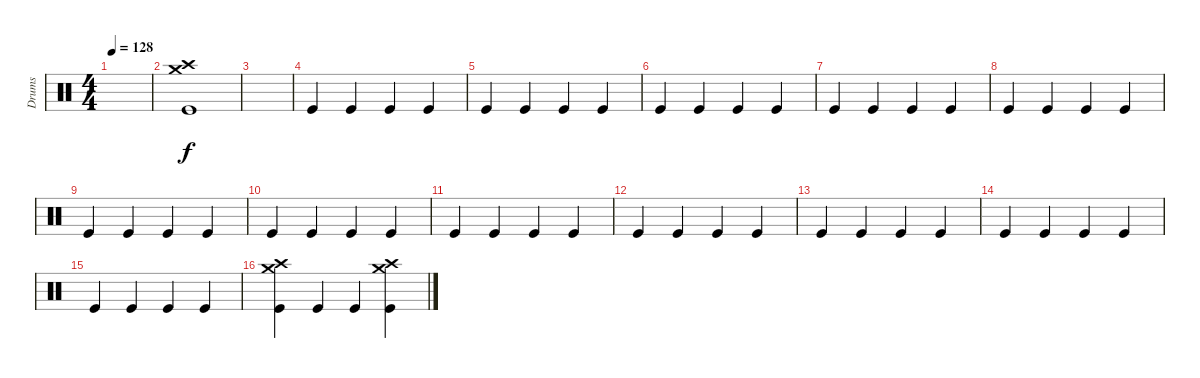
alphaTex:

\track ("Drums" "Drums") {instrument percussion}
\staff {score}
\articulation defaults
\ts (4 4)
\tempo 128
\clef neutral
\ks c
|
("Crash medium (hit)" "Crash high (hit)" "Kick (hit)").1 |
|
\section ("" "")
"Kick (hit)".4 "Kick (hit)".4 "Kick (hit)".4 "Kick (hit)".4 |
"Kick (hit)".4 "Kick (hit)".4 "Kick (hit)".4 "Kick (hit)".4 |
"Kick (hit)".4 "Kick (hit)".4 "Kick (hit)".4 "Kick (hit)".4 |
"Kick (hit)".4 "Kick (hit)".4 "Kick (hit)".4 "Kick (hit)".4 |
"Kick (hit)".4 "Kick (hit)".4 "Kick (hit)".4 "Kick (hit)".4 |
"Kick (hit)".4 "Kick (hit)".4 "Kick (hit)".4 "Kick (hit)".4 |
"Kick (hit)".4 "Kick (hit)".4 "Kick (hit)".4 "Kick (hit)".4 |
"Kick (hit)".4 "Kick (hit)".4 "Kick (hit)".4 "Kick (hit)".4 |
"Kick (hit)".4 "Kick (hit)".4 "Kick (hit)".4 "Kick (hit)".4 |
"Kick (hit)".4 "Kick (hit)".4 "Kick (hit)".4 "Kick (hit)".4 |
"Kick (hit)".4 "Kick (hit)".4 "Kick (hit)".4 "Kick (hit)".4 |
"Kick (hit)".4 "Kick (hit)".4 "Kick (hit)".4 "Kick (hit)".4 |
("Crash medium (hit)" "Crash high (hit)" "Kick (hit)").4 "Kick (hit)".4 "Kick (hit)".4 ("Crash medium (hit)" "Crash high (hit)" "Kick (hit)").4
